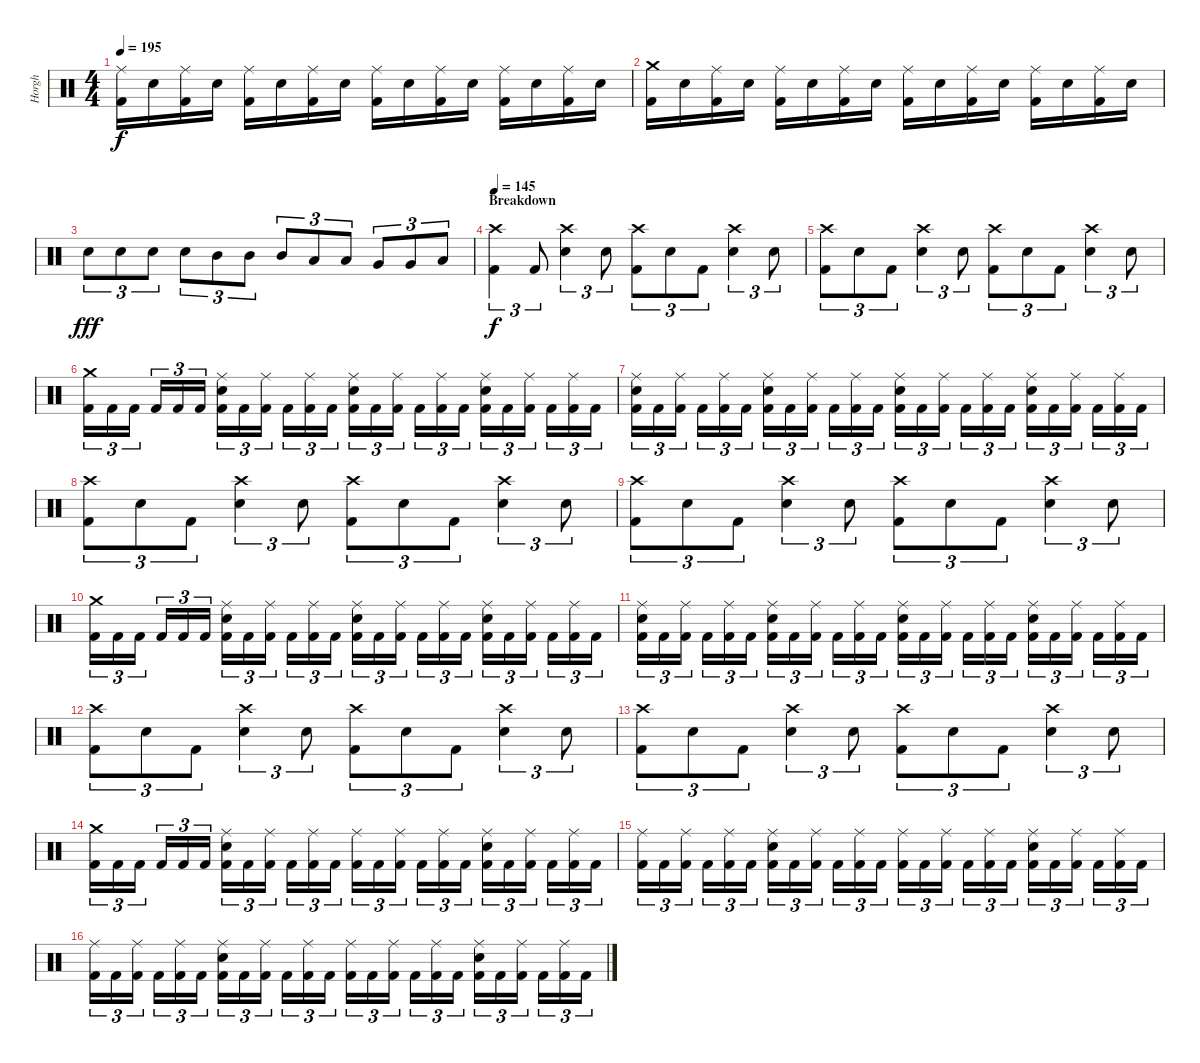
\track ("Horgh" "Horgh") {instrument percussion}
\staff {score}
\articulation defaults
\ts (4 4)
\tempo 195
\clef neutral
\ks c
("Ride (middle)" "Kick (hit) 2").16{dy f} "Electric Snare (hit)".16 ("Ride (middle)" "Kick (hit) 2").16 "Electric Snare (hit)".16 ("Ride (middle)" "Kick (hit) 2").16 "Electric Snare (hit)".16 ("Ride (middle)" "Kick (hit) 2").16 "Electric Snare (hit)".16 ("Ride (middle)" "Kick (hit) 2").16 "Electric Snare (hit)".16 ("Ride (middle)" "Kick (hit) 2").16 "Electric Snare (hit)".16 ("Ride (middle)" "Kick (hit) 2").16 "Electric Snare (hit)".16 ("Ride (middle)" "Kick (hit) 2").16 "Electric Snare (hit)".16 |
("Crash medium (hit)" "Kick (hit) 2").16 "Electric Snare (hit)".16 ("Ride (middle)" "Kick (hit) 2").16 "Electric Snare (hit)".16 ("Ride (middle)" "Kick (hit) 2").16 "Electric Snare (hit)".16 ("Ride (middle)" "Kick (hit) 2").16 "Electric Snare (hit)".16 ("Ride (middle)" "Kick (hit) 2").16 "Electric Snare (hit)".16 ("Ride (middle)" "Kick (hit) 2").16 "Electric Snare (hit)".16 ("Ride (middle)" "Kick (hit) 2").16 "Electric Snare (hit)".16 ("Ride (middle)" "Kick (hit) 2").16 "Electric Snare (hit)".16 |
"Electric Snare (hit)".8{tu (3 2) dy fff} "Electric Snare (hit)".8{tu (3 2)} "Electric Snare (hit)".8{tu (3 2)} "Electric Snare (hit)".8{tu (3 2)} "Mid Tom (hit)".8{tu (3 2)} "Mid Tom (hit)".8{tu (3 2)} "Mid Tom (hit)".8{tu (3 2)} "Low Tom (hit)".8{tu (3 2)} "Low Tom (hit)".8{tu (3 2)} "Very Low Tom (hit)".8{tu (3 2)} "Very Low Tom (hit)".8{tu (3 2)} "Low Floor Tom (hit)".8{tu (3 2)} |
\section ("" "Breakdown")
\tempo 145
("Crash high (hit)" "Kick (hit) 2").4{tu (3 2) dy f} "Kick (hit) 2".8{tu (3 2)} ("Crash high (hit)" "Electric Snare (hit)").4{tu (3 2)} "Electric Snare (hit)".8{tu (3 2)} ("Crash high (hit)" "Kick (hit) 2").8{tu (3 2)} "Electric Snare (hit)".8{tu (3 2)} "Kick (hit) 2".8{tu (3 2)} ("Crash high (hit)" "Electric Snare (hit)").4{tu (3 2)} "Electric Snare (hit)".8{tu (3 2)} |
("Crash high (hit)" "Kick (hit) 2").8{tu (3 2)} "Electric Snare (hit)".8{tu (3 2)} "Kick (hit) 2".8{tu (3 2)} ("Crash high (hit)" "Electric Snare (hit)").4{tu (3 2)} "Electric Snare (hit)".8{tu (3 2)} ("Crash high (hit)" "Kick (hit) 2").8{tu (3 2)} "Electric Snare (hit)".8{tu (3 2)} "Kick (hit) 2".8{tu (3 2)} ("Crash high (hit)" "Electric Snare (hit)").4{tu (3 2)} "Electric Snare (hit)".8{tu (3 2)} |
("Crash medium (hit)" "Kick (hit) 2").16{tu (3 2)} "Kick (hit) 2".16{tu (3 2)} "Kick (hit) 2".16{tu (3 2)} "Kick (hit) 2".16{tu (3 2)} "Kick (hit) 2".16{tu (3 2)} "Kick (hit) 2".16{tu (3 2)} ("Ride (middle)" "Electric Snare (hit)" "Kick (hit) 2").16{tu (3 2)} "Kick (hit) 2".16{tu (3 2)} ("Ride (middle)" "Kick (hit) 2").16{tu (3 2)} "Kick (hit) 2".16{tu (3 2)} ("Ride (middle)" "Kick (hit) 2").16{tu (3 2)} "Kick (hit) 2".16{tu (3 2)} ("Ride (middle)" "Electric Snare (hit)" "Kick (hit) 2").16{tu (3 2)} "Kick (hit) 2".16{tu (3 2)} ("Ride (middle)" "Kick (hit) 2").16{tu (3 2)} "Kick (hit) 2".16{tu (3 2)} ("Ride (middle)" "Kick (hit) 2").16{tu (3 2)} "Kick (hit) 2".16{tu (3 2)} ("Ride (middle)" "Electric Snare (hit)" "Kick (hit) 2").16{tu (3 2)} "Kick (hit) 2".16{tu (3 2)} ("Ride (middle)" "Kick (hit) 2").16{tu (3 2)} "Kick (hit) 2".16{tu (3 2)} ("Ride (middle)" "Kick (hit) 2").16{tu (3 2)} "Kick (hit) 2".16{tu (3 2)} |
("Ride (middle)" "Electric Snare (hit)" "Kick (hit) 2").16{tu (3 2)} "Kick (hit) 2".16{tu (3 2)} ("Ride (middle)" "Kick (hit) 2").16{tu (3 2)} "Kick (hit) 2".16{tu (3 2)} ("Ride (middle)" "Kick (hit) 2").16{tu (3 2)} "Kick (hit) 2".16{tu (3 2)} ("Ride (middle)" "Electric Snare (hit)" "Kick (hit) 2").16{tu (3 2)} "Kick (hit) 2".16{tu (3 2)} ("Ride (middle)" "Kick (hit) 2").16{tu (3 2)} "Kick (hit) 2".16{tu (3 2)} ("Ride (middle)" "Kick (hit) 2").16{tu (3 2)} "Kick (hit) 2".16{tu (3 2)} ("Ride (middle)" "Electric Snare (hit)" "Kick (hit) 2").16{tu (3 2)} "Kick (hit) 2".16{tu (3 2)} ("Ride (middle)" "Kick (hit) 2").16{tu (3 2)} "Kick (hit) 2".16{tu (3 2)} ("Ride (middle)" "Kick (hit) 2").16{tu (3 2)} "Kick (hit) 2".16{tu (3 2)} ("Ride (middle)" "Electric Snare (hit)" "Kick (hit) 2").16{tu (3 2)} "Kick (hit) 2".16{tu (3 2)} ("Ride (middle)" "Kick (hit) 2").16{tu (3 2)} "Kick (hit) 2".16{tu (3 2)} ("Ride (middle)" "Kick (hit) 2").16{tu (3 2)} "Kick (hit) 2".16{tu (3 2)} |
("Crash high (hit)" "Kick (hit) 2").8{tu (3 2)} "Electric Snare (hit)".8{tu (3 2)} "Kick (hit) 2".8{tu (3 2)} ("Crash high (hit)" "Electric Snare (hit)").4{tu (3 2)} "Electric Snare (hit)".8{tu (3 2)} ("Crash high (hit)" "Kick (hit) 2").8{tu (3 2)} "Electric Snare (hit)".8{tu (3 2)} "Kick (hit) 2".8{tu (3 2)} ("Crash high (hit)" "Electric Snare (hit)").4{tu (3 2)} "Electric Snare (hit)".8{tu (3 2)} |
("Crash high (hit)" "Kick (hit) 2").8{tu (3 2)} "Electric Snare (hit)".8{tu (3 2)} "Kick (hit) 2".8{tu (3 2)} ("Crash high (hit)" "Electric Snare (hit)").4{tu (3 2)} "Electric Snare (hit)".8{tu (3 2)} ("Crash high (hit)" "Kick (hit) 2").8{tu (3 2)} "Electric Snare (hit)".8{tu (3 2)} "Kick (hit) 2".8{tu (3 2)} ("Crash high (hit)" "Electric Snare (hit)").4{tu (3 2)} "Electric Snare (hit)".8{tu (3 2)} |
("Crash medium (hit)" "Kick (hit) 2").16{tu (3 2)} "Kick (hit) 2".16{tu (3 2)} "Kick (hit) 2".16{tu (3 2)} "Kick (hit) 2".16{tu (3 2)} "Kick (hit) 2".16{tu (3 2)} "Kick (hit) 2".16{tu (3 2)} ("Ride (middle)" "Electric Snare (hit)" "Kick (hit) 2").16{tu (3 2)} "Kick (hit) 2".16{tu (3 2)} ("Ride (middle)" "Kick (hit) 2").16{tu (3 2)} "Kick (hit) 2".16{tu (3 2)} ("Ride (middle)" "Kick (hit) 2").16{tu (3 2)} "Kick (hit) 2".16{tu (3 2)} ("Ride (middle)" "Electric Snare (hit)" "Kick (hit) 2").16{tu (3 2)} "Kick (hit) 2".16{tu (3 2)} ("Ride (middle)" "Kick (hit) 2").16{tu (3 2)} "Kick (hit) 2".16{tu (3 2)} ("Ride (middle)" "Kick (hit) 2").16{tu (3 2)} "Kick (hit) 2".16{tu (3 2)} ("Ride (middle)" "Electric Snare (hit)" "Kick (hit) 2").16{tu (3 2)} "Kick (hit) 2".16{tu (3 2)} ("Ride (middle)" "Kick (hit) 2").16{tu (3 2)} "Kick (hit) 2".16{tu (3 2)} ("Ride (middle)" "Kick (hit) 2").16{tu (3 2)} "Kick (hit) 2".16{tu (3 2)} |
("Ride (middle)" "Electric Snare (hit)" "Kick (hit) 2").16{tu (3 2)} "Kick (hit) 2".16{tu (3 2)} ("Ride (middle)" "Kick (hit) 2").16{tu (3 2)} "Kick (hit) 2".16{tu (3 2)} ("Ride (middle)" "Kick (hit) 2").16{tu (3 2)} "Kick (hit) 2".16{tu (3 2)} ("Ride (middle)" "Electric Snare (hit)" "Kick (hit) 2").16{tu (3 2)} "Kick (hit) 2".16{tu (3 2)} ("Ride (middle)" "Kick (hit) 2").16{tu (3 2)} "Kick (hit) 2".16{tu (3 2)} ("Ride (middle)" "Kick (hit) 2").16{tu (3 2)} "Kick (hit) 2".16{tu (3 2)} ("Ride (middle)" "Electric Snare (hit)" "Kick (hit) 2").16{tu (3 2)} "Kick (hit) 2".16{tu (3 2)} ("Ride (middle)" "Kick (hit) 2").16{tu (3 2)} "Kick (hit) 2".16{tu (3 2)} ("Ride (middle)" "Kick (hit) 2").16{tu (3 2)} "Kick (hit) 2".16{tu (3 2)} ("Ride (middle)" "Electric Snare (hit)" "Kick (hit) 2").16{tu (3 2)} "Kick (hit) 2".16{tu (3 2)} ("Ride (middle)" "Kick (hit) 2").16{tu (3 2)} "Kick (hit) 2".16{tu (3 2)} ("Ride (middle)" "Kick (hit) 2").16{tu (3 2)} "Kick (hit) 2".16{tu (3 2)} |
("Crash high (hit)" "Kick (hit) 2").8{tu (3 2)} "Electric Snare (hit)".8{tu (3 2)} "Kick (hit) 2".8{tu (3 2)} ("Crash high (hit)" "Electric Snare (hit)").4{tu (3 2)} "Electric Snare (hit)".8{tu (3 2)} ("Crash high (hit)" "Kick (hit) 2").8{tu (3 2)} "Electric Snare (hit)".8{tu (3 2)} "Kick (hit) 2".8{tu (3 2)} ("Crash high (hit)" "Electric Snare (hit)").4{tu (3 2)} "Electric Snare (hit)".8{tu (3 2)} |
("Crash high (hit)" "Kick (hit) 2").8{tu (3 2)} "Electric Snare (hit)".8{tu (3 2)} "Kick (hit) 2".8{tu (3 2)} ("Crash high (hit)" "Electric Snare (hit)").4{tu (3 2)} "Electric Snare (hit)".8{tu (3 2)} ("Crash high (hit)" "Kick (hit) 2").8{tu (3 2)} "Electric Snare (hit)".8{tu (3 2)} "Kick (hit) 2".8{tu (3 2)} ("Crash high (hit)" "Electric Snare (hit)").4{tu (3 2)} "Electric Snare (hit)".8{tu (3 2)} |
("Crash medium (hit)" "Kick (hit) 2").16{tu (3 2)} "Kick (hit) 2".16{tu (3 2)} "Kick (hit) 2".16{tu (3 2)} "Kick (hit) 2".16{tu (3 2)} "Kick (hit) 2".16{tu (3 2)} "Kick (hit) 2".16{tu (3 2)} ("Ride (middle)" "Electric Snare (hit)" "Kick (hit) 2").16{tu (3 2)} "Kick (hit) 2".16{tu (3 2)} ("Ride (middle)" "Kick (hit) 2").16{tu (3 2)} "Kick (hit) 2".16{tu (3 2)} ("Ride (middle)" "Kick (hit) 2").16{tu (3 2)} "Kick (hit) 2".16{tu (3 2)} ("Ride (middle)" "Kick (hit) 2").16{tu (3 2)} "Kick (hit) 2".16{tu (3 2)} ("Ride (middle)" "Kick (hit) 2").16{tu (3 2)} "Kick (hit) 2".16{tu (3 2)} ("Ride (middle)" "Kick (hit) 2").16{tu (3 2)} "Kick (hit) 2".16{tu (3 2)} ("Ride (middle)" "Electric Snare (hit)" "Kick (hit) 2").16{tu (3 2)} "Kick (hit) 2".16{tu (3 2)} ("Ride (middle)" "Kick (hit) 2").16{tu (3 2)} "Kick (hit) 2".16{tu (3 2)} ("Ride (middle)" "Kick (hit) 2").16{tu (3 2)} "Kick (hit) 2".16{tu (3 2)} |
("Ride (middle)" "Kick (hit) 2").16{tu (3 2)} "Kick (hit) 2".16{tu (3 2)} ("Ride (middle)" "Kick (hit) 2").16{tu (3 2)} "Kick (hit) 2".16{tu (3 2)} ("Ride (middle)" "Kick (hit) 2").16{tu (3 2)} "Kick (hit) 2".16{tu (3 2)} ("Ride (middle)" "Electric Snare (hit)" "Kick (hit) 2").16{tu (3 2)} "Kick (hit) 2".16{tu (3 2)} ("Ride (middle)" "Kick (hit) 2").16{tu (3 2)} "Kick (hit) 2".16{tu (3 2)} ("Ride (middle)" "Kick (hit) 2").16{tu (3 2)} "Kick (hit) 2".16{tu (3 2)} ("Ride (middle)" "Kick (hit) 2").16{tu (3 2)} "Kick (hit) 2".16{tu (3 2)} ("Ride (middle)" "Kick (hit) 2").16{tu (3 2)} "Kick (hit) 2".16{tu (3 2)} ("Ride (middle)" "Kick (hit) 2").16{tu (3 2)} "Kick (hit) 2".16{tu (3 2)} ("Ride (middle)" "Electric Snare (hit)" "Kick (hit) 2").16{tu (3 2)} "Kick (hit) 2".16{tu (3 2)} ("Ride (middle)" "Kick (hit) 2").16{tu (3 2)} "Kick (hit) 2".16{tu (3 2)} ("Ride (middle)" "Kick (hit) 2").16{tu (3 2)} "Kick (hit) 2".16{tu (3 2)} |
("Ride (middle)" "Kick (hit) 2").16{tu (3 2)} "Kick (hit) 2".16{tu (3 2)} ("Ride (middle)" "Kick (hit) 2").16{tu (3 2)} "Kick (hit) 2".16{tu (3 2)} ("Ride (middle)" "Kick (hit) 2").16{tu (3 2)} "Kick (hit) 2".16{tu (3 2)} ("Ride (middle)" "Electric Snare (hit)" "Kick (hit) 2").16{tu (3 2)} "Kick (hit) 2".16{tu (3 2)} ("Ride (middle)" "Kick (hit) 2").16{tu (3 2)} "Kick (hit) 2".16{tu (3 2)} ("Ride (middle)" "Kick (hit) 2").16{tu (3 2)} "Kick (hit) 2".16{tu (3 2)} ("Ride (middle)" "Kick (hit) 2").16{tu (3 2)} "Kick (hit) 2".16{tu (3 2)} ("Ride (middle)" "Kick (hit) 2").16{tu (3 2)} "Kick (hit) 2".16{tu (3 2)} ("Ride (middle)" "Kick (hit) 2").16{tu (3 2)} "Kick (hit) 2".16{tu (3 2)} ("Ride (middle)" "Electric Snare (hit)" "Kick (hit) 2").16{tu (3 2)} "Kick (hit) 2".16{tu (3 2)} ("Ride (middle)" "Kick (hit) 2").16{tu (3 2)} "Kick (hit) 2".16{tu (3 2)} ("Ride (middle)" "Kick (hit) 2").16{tu (3 2)} "Kick (hit) 2".16{tu (3 2)}
